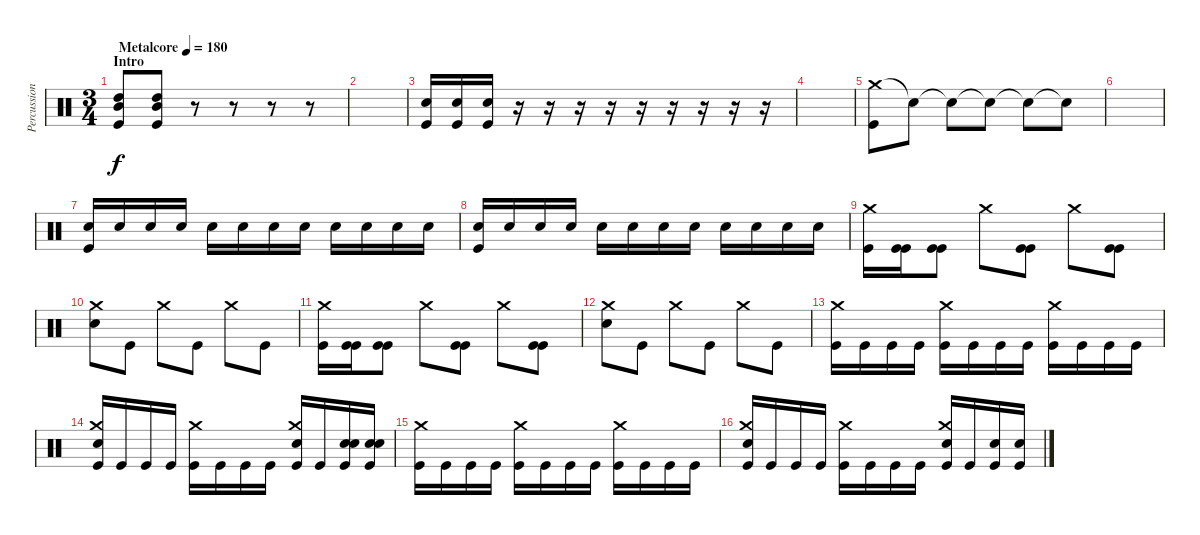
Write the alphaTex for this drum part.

\track ("Percussion" "Percussion") {instrument percussion}
\staff {score}
\articulation defaults
\ts (3 4)
\section ("" "Intro")
\tempo (180 "Metalcore")
\clef neutral
\ks c
("Mid Tom (hit)" "High Tom (hit)" "Kick (hit)").8{dy f} ("Mid Tom (hit)" "High Tom (hit)" "Kick (hit)").8 r.8 r.8 r.8 r.8 |
|
("Electric Snare (hit)" "Kick (hit)").16 ("Electric Snare (hit)" "Kick (hit)").16 ("Electric Snare (hit)" "Kick (hit)").16 r.16 r.16 r.16 r.16 r.16 r.16 r.16 r.16 r.16 |
|
("Crash medium (hit)" "Kick (hit)").8 "Snare (hit)"{t}.8 "Snare (hit)"{t}.8 "Snare (hit)"{t}.8 "Snare (hit)"{t}.8 "Snare (hit)"{t}.8 |
|
("Snare (hit) 2" "Kick (hit)").16 "Snare (hit) 2".16 "Snare (hit) 2".16 "Snare (hit) 2".16 "Snare (hit) 2".16 "Snare (hit) 2".16 "Snare (hit) 2".16 "Snare (hit) 2".16 "Snare (hit) 2".16 "Snare (hit) 2".16 "Snare (hit) 2".16 "Snare (hit) 2".16 |
("Snare (hit) 2" "Kick (hit)").16 "Snare (hit) 2".16 "Snare (hit) 2".16 "Snare (hit) 2".16 "Snare (hit) 2".16 "Snare (hit) 2".16 "Snare (hit) 2".16 "Snare (hit) 2".16 "Snare (hit) 2".16 "Snare (hit) 2".16 "Snare (hit) 2".16 "Snare (hit) 2".16 |
("Crash medium (hit)" "Kick (hit)").16 ("Kick (hit)" "Kick (hit)").16 ("Kick (hit)" "Kick (hit)").8 "Crash medium (hit)".8 ("Kick (hit)" "Kick (hit)").8 "Crash medium (hit)".8 ("Kick (hit)" "Kick (hit)").8 |
("Crash medium (hit)" "Snare (hit) 2").8 "Kick (hit)".8 "Crash medium (hit)".8 "Kick (hit)".8 "Crash medium (hit)".8 "Kick (hit)".8 |
("Crash medium (hit)" "Kick (hit)").16 ("Kick (hit)" "Kick (hit)").16 ("Kick (hit)" "Kick (hit)").8 "Crash medium (hit)".8 ("Kick (hit)" "Kick (hit)").8 "Crash medium (hit)".8 ("Kick (hit)" "Kick (hit)").8 |
("Crash medium (hit)" "Snare (hit) 2").8 "Kick (hit)".8 "Crash medium (hit)".8 "Kick (hit)".8 "Crash medium (hit)".8 "Kick (hit)".8 |
("Crash medium (hit)" "Kick (hit)").16 "Kick (hit)".16 "Kick (hit)".16 "Kick (hit)".16 ("Crash medium (hit)" "Kick (hit)").16 "Kick (hit)".16 "Kick (hit)".16 "Kick (hit)".16 ("Crash medium (hit)" "Kick (hit)").16 "Kick (hit)".16 "Kick (hit)".16 "Kick (hit)".16 |
("Snare (hit) 2" "Crash medium (hit)" "Kick (hit)").16 "Kick (hit)".16 "Kick (hit)".16 "Kick (hit)".16 ("Crash medium (hit)" "Kick (hit)").16 "Kick (hit)".16 "Kick (hit)".16 "Kick (hit)".16 ("Snare (hit) 2" "Crash medium (hit)" "Kick (hit)").16 "Kick (hit)".16 ("Snare (hit) 2" "Snare (hit) 2" "Kick (hit)").16 ("Snare (hit) 2" "Snare (hit) 2" "Kick (hit)").16 |
("Crash medium (hit)" "Kick (hit)").16 "Kick (hit)".16 "Kick (hit)".16 "Kick (hit)".16 ("Crash medium (hit)" "Kick (hit)").16 "Kick (hit)".16 "Kick (hit)".16 "Kick (hit)".16 ("Crash medium (hit)" "Kick (hit)").16 "Kick (hit)".16 "Kick (hit)".16 "Kick (hit)".16 |
("Snare (hit) 2" "Crash medium (hit)" "Kick (hit)").16 "Kick (hit)".16 "Kick (hit)".16 "Kick (hit)".16 ("Crash medium (hit)" "Kick (hit)").16 "Kick (hit)".16 "Kick (hit)".16 "Kick (hit)".16 ("Snare (hit) 2" "Crash medium (hit)" "Kick (hit)").16 "Kick (hit)".16 ("Snare (hit) 2" "Kick (hit)").16 ("Snare (hit) 2" "Kick (hit)").16
